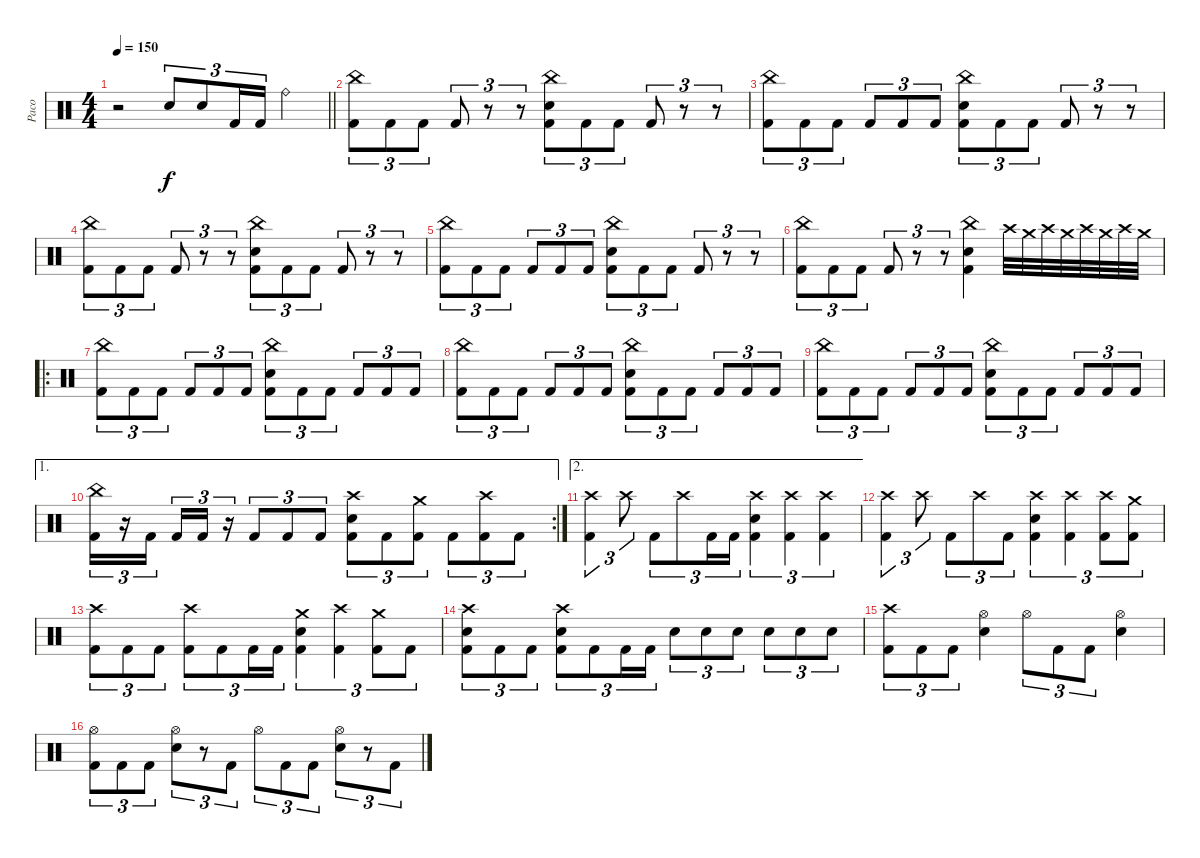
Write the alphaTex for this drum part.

\track ("Paco" "Paco") {instrument percussion}
\staff {score}
\articulation defaults
\ts (4 4)
\tempo 150
\clef neutral
\barLineRight lightlight
\ks c
r.2{dy f} "Electric Snare (hit)".8{tu (3 2)} "Electric Snare (hit)".8{tu (3 2)} "Kick (hit) 2".16{tu (3 2)} "Kick (hit) 2".16{tu (3 2)} "Ride (bell)".4 |
("China (hit)" "Kick (hit) 2").8{tu (3 2)} "Kick (hit) 2".8{tu (3 2)} "Kick (hit) 2".8{tu (3 2)} "Kick (hit) 2".8{tu (3 2)} r.8{tu (3 2)} r.8{tu (3 2)} ("China (hit)" "Electric Snare (hit)" "Kick (hit) 2").8{tu (3 2)} "Kick (hit) 2".8{tu (3 2)} "Kick (hit) 2".8{tu (3 2)} "Kick (hit) 2".8{tu (3 2)} r.8{tu (3 2)} r.8{tu (3 2)} |
("China (hit)" "Kick (hit) 2").8{tu (3 2)} "Kick (hit) 2".8{tu (3 2)} "Kick (hit) 2".8{tu (3 2)} "Kick (hit) 2".8{tu (3 2)} "Kick (hit) 2".8{tu (3 2)} "Kick (hit) 2".8{tu (3 2)} ("China (hit)" "Electric Snare (hit)" "Kick (hit) 2").8{tu (3 2)} "Kick (hit) 2".8{tu (3 2)} "Kick (hit) 2".8{tu (3 2)} "Kick (hit) 2".8{tu (3 2)} r.8{tu (3 2)} r.8{tu (3 2)} |
("China (hit)" "Kick (hit) 2").8{tu (3 2)} "Kick (hit) 2".8{tu (3 2)} "Kick (hit) 2".8{tu (3 2)} "Kick (hit) 2".8{tu (3 2)} r.8{tu (3 2)} r.8{tu (3 2)} ("China (hit)" "Electric Snare (hit)" "Kick (hit) 2").8{tu (3 2)} "Kick (hit) 2".8{tu (3 2)} "Kick (hit) 2".8{tu (3 2)} "Kick (hit) 2".8{tu (3 2)} r.8{tu (3 2)} r.8{tu (3 2)} |
("China (hit)" "Kick (hit) 2").8{tu (3 2)} "Kick (hit) 2".8{tu (3 2)} "Kick (hit) 2".8{tu (3 2)} "Kick (hit) 2".8{tu (3 2)} "Kick (hit) 2".8{tu (3 2)} "Kick (hit) 2".8{tu (3 2)} ("China (hit)" "Electric Snare (hit)" "Kick (hit) 2").8{tu (3 2)} "Kick (hit) 2".8{tu (3 2)} "Kick (hit) 2".8{tu (3 2)} "Kick (hit) 2".8{tu (3 2)} r.8{tu (3 2)} r.8{tu (3 2)} |
("China (hit)" "Kick (hit) 2").8{tu (3 2)} "Kick (hit) 2".8{tu (3 2)} "Kick (hit) 2".8{tu (3 2)} "Kick (hit) 2".8{tu (3 2)} r.8{tu (3 2)} r.8{tu (3 2)} ("China (hit)" "Electric Snare (hit)" "Kick (hit) 2").4 "Crash high (hit)".32 "Crash medium (hit)".32 "Crash high (hit)".32 "Crash medium (hit)".32 "Crash high (hit)".32 "Crash medium (hit)".32 "Crash high (hit)".32 "Crash medium (hit)".32 |
\ro
("China (hit)" "Kick (hit) 2").8{tu (3 2)} "Kick (hit) 2".8{tu (3 2)} "Kick (hit) 2".8{tu (3 2)} "Kick (hit) 2".8{tu (3 2)} "Kick (hit) 2".8{tu (3 2)} "Kick (hit) 2".8{tu (3 2)} ("China (hit)" "Electric Snare (hit)" "Kick (hit) 2").8{tu (3 2)} "Kick (hit) 2".8{tu (3 2)} "Kick (hit) 2".8{tu (3 2)} "Kick (hit) 2".8{tu (3 2)} "Kick (hit) 2".8{tu (3 2)} "Kick (hit) 2".8{tu (3 2)} |
("China (hit)" "Kick (hit) 2").8{tu (3 2)} "Kick (hit) 2".8{tu (3 2)} "Kick (hit) 2".8{tu (3 2)} "Kick (hit) 2".8{tu (3 2)} "Kick (hit) 2".8{tu (3 2)} "Kick (hit) 2".8{tu (3 2)} ("China (hit)" "Electric Snare (hit)" "Kick (hit) 2").8{tu (3 2)} "Kick (hit) 2".8{tu (3 2)} "Kick (hit) 2".8{tu (3 2)} "Kick (hit) 2".8{tu (3 2)} "Kick (hit) 2".8{tu (3 2)} "Kick (hit) 2".8{tu (3 2)} |
("China (hit)" "Kick (hit) 2").8{tu (3 2)} "Kick (hit) 2".8{tu (3 2)} "Kick (hit) 2".8{tu (3 2)} "Kick (hit) 2".8{tu (3 2)} "Kick (hit) 2".8{tu (3 2)} "Kick (hit) 2".8{tu (3 2)} ("China (hit)" "Electric Snare (hit)" "Kick (hit) 2").8{tu (3 2)} "Kick (hit) 2".8{tu (3 2)} "Kick (hit) 2".8{tu (3 2)} "Kick (hit) 2".8{tu (3 2)} "Kick (hit) 2".8{tu (3 2)} "Kick (hit) 2".8{tu (3 2)} |
\ae 1
\rc 2
("China (hit)" "Kick (hit) 2").16{tu (3 2)} r.16{tu (3 2)} "Kick (hit) 2".16{tu (3 2) beam splitsecondary} "Kick (hit) 2".16{tu (3 2)} "Kick (hit) 2".16{tu (3 2)} r.16{tu (3 2)} "Kick (hit) 2".8{tu (3 2)} "Kick (hit) 2".8{tu (3 2)} "Kick (hit) 2".8{tu (3 2)} ("Crash high (hit)" "Electric Snare (hit)" "Kick (hit) 2").8{tu (3 2)} "Kick (hit) 2".8{tu (3 2)} ("Crash medium (hit)" "Kick (hit) 2").8{tu (3 2)} "Kick (hit) 2".8{tu (3 2)} ("Crash high (hit)" "Kick (hit) 2").8{tu (3 2)} "Kick (hit) 2".8{tu (3 2)} |
\ae 2
("Crash high (hit)" "Kick (hit) 2").4{tu (3 2)} "Crash high (hit)".8{tu (3 2)} "Kick (hit) 2".8{tu (3 2)} "Crash high (hit)".8{tu (3 2)} "Kick (hit) 2".16{tu (3 2)} "Kick (hit) 2".16{tu (3 2)} ("Crash high (hit)" "Electric Snare (hit)" "Kick (hit) 2").4{tu (3 2)} ("Crash high (hit)" "Kick (hit) 2").4{tu (3 2)} ("Crash high (hit)" "Kick (hit) 2").4{tu (3 2)} |
("Crash high (hit)" "Kick (hit) 2").4{tu (3 2)} "Crash high (hit)".8{tu (3 2)} "Kick (hit) 2".8{tu (3 2)} "Crash high (hit)".8{tu (3 2)} "Kick (hit) 2".8{tu (3 2)} ("Crash high (hit)" "Electric Snare (hit)" "Kick (hit) 2").4{tu (3 2)} ("Crash high (hit)" "Kick (hit) 2").4{tu (3 2)} ("Crash high (hit)" "Kick (hit) 2").8{tu (3 2)} ("Crash medium (hit)" "Kick (hit) 2").8{tu (3 2)} |
("Crash high (hit)" "Kick (hit) 2").8{tu (3 2)} "Kick (hit) 2".8{tu (3 2)} "Kick (hit) 2".8{tu (3 2)} ("Crash high (hit)" "Kick (hit) 2").8{tu (3 2)} "Kick (hit) 2".8{tu (3 2)} "Kick (hit) 2".16{tu (3 2)} "Kick (hit) 2".16{tu (3 2)} ("Crash medium (hit)" "Electric Snare (hit)" "Kick (hit) 2").4{tu (3 2)} ("Crash high (hit)" "Kick (hit) 2").4{tu (3 2)} ("Crash medium (hit)" "Kick (hit) 2").8{tu (3 2)} "Kick (hit) 2".8{tu (3 2)} |
("Crash high (hit)" "Electric Snare (hit)" "Kick (hit) 2").8{tu (3 2)} "Kick (hit) 2".8{tu (3 2)} "Kick (hit) 2".8{tu (3 2)} ("Crash high (hit)" "Electric Snare (hit)" "Kick (hit) 2").8{tu (3 2)} "Kick (hit) 2".8{tu (3 2)} "Kick (hit) 2".16{tu (3 2)} "Kick (hit) 2".16{tu (3 2)} "Electric Snare (hit)".8{tu (3 2)} "Electric Snare (hit)".8{tu (3 2)} "Electric Snare (hit)".8{tu (3 2)} "Electric Snare (hit)".8{tu (3 2)} "Electric Snare (hit)".8{tu (3 2)} "Electric Snare (hit)".8{tu (3 2)} |
("Crash high (hit)" "Kick (hit) 2").8{tu (3 2)} "Kick (hit) 2".8{tu (3 2)} "Kick (hit) 2".8{tu (3 2)} ("Hi-Hat (open)" "Electric Snare (hit)").4 "Hi-Hat (open)".8{tu (3 2)} "Kick (hit) 2".8{tu (3 2)} "Kick (hit) 2".8{tu (3 2)} ("Hi-Hat (open)" "Electric Snare (hit)").4 |
("Hi-Hat (open)" "Kick (hit) 2").8{tu (3 2)} "Kick (hit) 2".8{tu (3 2)} "Kick (hit) 2".8{tu (3 2)} ("Hi-Hat (open)" "Electric Snare (hit)").8{tu (3 2)} r.8{tu (3 2)} "Kick (hit) 2".8{tu (3 2)} "Hi-Hat (open)".8{tu (3 2)} "Kick (hit) 2".8{tu (3 2)} "Kick (hit) 2".8{tu (3 2)} ("Hi-Hat (open)" "Electric Snare (hit)").8{tu (3 2)} r.8{tu (3 2)} "Kick (hit) 2".8{tu (3 2)}
